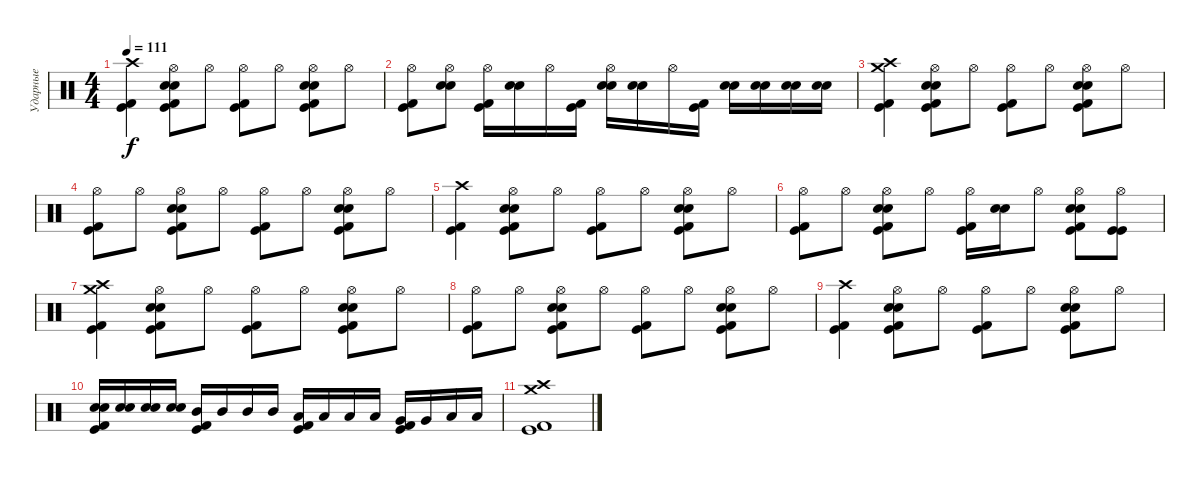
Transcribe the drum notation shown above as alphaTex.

\track ("Ударные" "Ударные") {instrument percussion}
\staff {score}
\articulation defaults
\ts (4 4)
\tempo 111
\clef neutral
\ks c
("Crash high (hit)" "Kick (hit)" "Kick (hit) 2").4{dy f} ("Hi-Hat (open)" "Kick (hit)" "Kick (hit) 2" "Snare (hit) 2" "Electric Snare (hit)").8 "Hi-Hat (open)".8 ("Hi-Hat (open)" "Kick (hit)" "Kick (hit) 2").8 "Hi-Hat (open)".8 ("Hi-Hat (open)" "Kick (hit)" "Kick (hit) 2" "Snare (hit) 2" "Electric Snare (hit)").8 "Hi-Hat (open)".8 |
("Hi-Hat (open)" "Kick (hit)" "Kick (hit) 2").8 ("Hi-Hat (open)" "Snare (hit) 2" "Electric Snare (hit)").8 ("Hi-Hat (open)" "Kick (hit)" "Kick (hit) 2").16 ("Snare (hit) 2" "Electric Snare (hit)").16 "Hi-Hat (open)".16 ("Kick (hit)" "Kick (hit) 2").16 ("Hi-Hat (open)" "Snare (hit) 2" "Electric Snare (hit)").16 ("Snare (hit) 2" "Electric Snare (hit)").16 "Hi-Hat (open)".16 ("Kick (hit)" "Kick (hit) 2").16 ("Snare (hit) 2" "Electric Snare (hit)").16 ("Snare (hit) 2" "Electric Snare (hit)").16 ("Snare (hit) 2" "Electric Snare (hit)").16 ("Snare (hit) 2" "Electric Snare (hit)").16 |
("Crash high (hit)" "Kick (hit)" "Kick (hit) 2" "Crash medium (hit)").4 ("Hi-Hat (open)" "Kick (hit)" "Kick (hit) 2" "Snare (hit) 2" "Electric Snare (hit)").8 "Hi-Hat (open)".8 ("Hi-Hat (open)" "Kick (hit)" "Kick (hit) 2").8 "Hi-Hat (open)".8 ("Hi-Hat (open)" "Kick (hit)" "Kick (hit) 2" "Snare (hit) 2" "Electric Snare (hit)").8 "Hi-Hat (open)".8 |
("Hi-Hat (open)" "Kick (hit)" "Kick (hit) 2").8 "Hi-Hat (open)".8 ("Hi-Hat (open)" "Kick (hit)" "Kick (hit) 2" "Snare (hit) 2" "Electric Snare (hit)").8 "Hi-Hat (open)".8 ("Hi-Hat (open)" "Kick (hit)" "Kick (hit) 2").8 "Hi-Hat (open)".8 ("Hi-Hat (open)" "Kick (hit)" "Kick (hit) 2" "Snare (hit) 2" "Electric Snare (hit)").8 "Hi-Hat (open)".8 |
("Crash high (hit)" "Kick (hit)" "Kick (hit) 2").4 ("Hi-Hat (open)" "Kick (hit)" "Kick (hit) 2" "Snare (hit) 2" "Electric Snare (hit)").8 "Hi-Hat (open)".8 ("Hi-Hat (open)" "Kick (hit)" "Kick (hit) 2").8 "Hi-Hat (open)".8 ("Hi-Hat (open)" "Kick (hit)" "Kick (hit) 2" "Snare (hit) 2" "Electric Snare (hit)").8 "Hi-Hat (open)".8 |
("Hi-Hat (open)" "Kick (hit)" "Kick (hit) 2").8 "Hi-Hat (open)".8 ("Hi-Hat (open)" "Kick (hit)" "Kick (hit) 2" "Snare (hit) 2" "Electric Snare (hit)").8 "Hi-Hat (open)".8 ("Hi-Hat (open)" "Kick (hit)" "Kick (hit) 2").16 ("Snare (hit) 2" "Electric Snare (hit)").16 "Hi-Hat (open)".8 ("Hi-Hat (open)" "Kick (hit)" "Kick (hit) 2" "Snare (hit) 2" "Electric Snare (hit)").8 ("Hi-Hat (open)" "Kick (hit)" "Kick (hit)").8 |
("Crash high (hit)" "Kick (hit)" "Kick (hit) 2" "Crash medium (hit)").4 ("Hi-Hat (open)" "Kick (hit)" "Kick (hit) 2" "Snare (hit) 2" "Electric Snare (hit)").8 "Hi-Hat (open)".8 ("Hi-Hat (open)" "Kick (hit)" "Kick (hit) 2").8 "Hi-Hat (open)".8 ("Hi-Hat (open)" "Kick (hit)" "Kick (hit) 2" "Snare (hit) 2" "Electric Snare (hit)").8 "Hi-Hat (open)".8 |
("Hi-Hat (open)" "Kick (hit)" "Kick (hit) 2").8 "Hi-Hat (open)".8 ("Hi-Hat (open)" "Kick (hit)" "Kick (hit) 2" "Snare (hit) 2" "Electric Snare (hit)").8 "Hi-Hat (open)".8 ("Hi-Hat (open)" "Kick (hit)" "Kick (hit) 2").8 "Hi-Hat (open)".8 ("Hi-Hat (open)" "Kick (hit)" "Kick (hit) 2" "Snare (hit) 2" "Electric Snare (hit)").8 "Hi-Hat (open)".8 |
("Crash high (hit)" "Kick (hit)" "Kick (hit) 2").4 ("Hi-Hat (open)" "Kick (hit)" "Kick (hit) 2" "Snare (hit) 2" "Electric Snare (hit)").8 "Hi-Hat (open)".8 ("Hi-Hat (open)" "Kick (hit)" "Kick (hit) 2").8 "Hi-Hat (open)".8 ("Hi-Hat (open)" "Kick (hit)" "Kick (hit) 2" "Snare (hit) 2" "Electric Snare (hit)").8 "Hi-Hat (open)".8 |
("Snare (hit) 2" "Electric Snare (hit)" "Kick (hit)" "Kick (hit) 2").16 ("Snare (hit) 2" "Electric Snare (hit)").16 ("Snare (hit) 2" "Electric Snare (hit)").16 ("Snare (hit) 2" "Electric Snare (hit)").16 ("Mid Tom (hit)" "Kick (hit)" "Kick (hit) 2").16 "Mid Tom (hit)".16 "Mid Tom (hit)".16 "Mid Tom (hit)".16 ("Low Tom (hit)" "Kick (hit)" "Kick (hit) 2").16 "Low Tom (hit)".16 "Low Tom (hit)".16 "Low Tom (hit)".16 ("Very Low Tom (hit)" "Kick (hit)" "Kick (hit) 2").16 "Very Low Tom (hit)".16 "Low Floor Tom (hit)".16 "Low Floor Tom (hit)".16 |
("Crash high (hit)" "Kick (hit)" "Kick (hit) 2" "Crash medium (hit)").1
